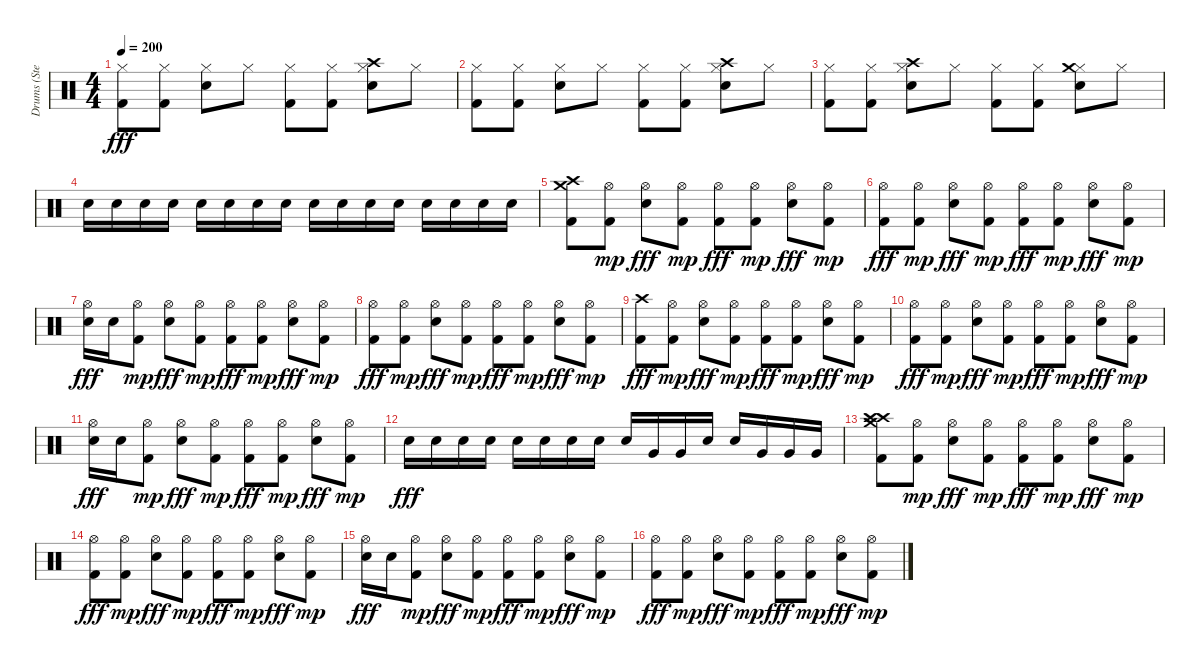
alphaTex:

\track ("Drums (Stevo32)" "Drums (Ste") {instrument percussion}
\staff {score}
\articulation defaults
\ts (4 4)
\tempo 200
\clef neutral
\ks c
("Kick (hit) 2" "Hi-Hat (closed)").8{dy fff} ("Kick (hit) 2" "Hi-Hat (closed)").8 ("Electric Snare (hit)" "Hi-Hat (closed)").8 "Hi-Hat (closed)".8 ("Kick (hit) 2" "Hi-Hat (closed)").8 ("Kick (hit) 2" "Hi-Hat (closed)").8 ("Electric Snare (hit)" "Hi-Hat (closed)" "Crash high (hit)").8 "Hi-Hat (closed)".8 |
("Kick (hit) 2" "Hi-Hat (closed)").8 ("Kick (hit) 2" "Hi-Hat (closed)").8 ("Electric Snare (hit)" "Hi-Hat (closed)").8 "Hi-Hat (closed)".8 ("Kick (hit) 2" "Hi-Hat (closed)").8 ("Kick (hit) 2" "Hi-Hat (closed)").8 ("Electric Snare (hit)" "Hi-Hat (closed)" "Crash high (hit)").8 "Hi-Hat (closed)".8 |
("Kick (hit) 2" "Hi-Hat (closed)").8 ("Kick (hit) 2" "Hi-Hat (closed)").8 ("Electric Snare (hit)" "Hi-Hat (closed)" "Crash high (hit)").8 "Hi-Hat (closed)".8 ("Kick (hit) 2" "Hi-Hat (closed)").8 ("Kick (hit) 2" "Hi-Hat (closed)").8 ("Electric Snare (hit)" "Hi-Hat (closed)" "Crash medium (hit)").8 "Hi-Hat (closed)".8 |
"Electric Snare (hit)".16 "Electric Snare (hit)".16 "Electric Snare (hit)".16 "Electric Snare (hit)".16 "Electric Snare (hit)".16 "Electric Snare (hit)".16 "Electric Snare (hit)".16 "Electric Snare (hit)".16 "Electric Snare (hit)".16 "Electric Snare (hit)".16 "Electric Snare (hit)".16 "Electric Snare (hit)".16 "Electric Snare (hit)".16 "Electric Snare (hit)".16 "Electric Snare (hit)".16 "Electric Snare (hit)".16 |
("Kick (hit) 2" "Crash high (hit)" "Crash medium (hit)").8 ("Kick (hit) 2" "Hi-Hat (open)").8{dy mp} ("Electric Snare (hit)" "Hi-Hat (open)").8{dy fff} ("Kick (hit) 2" "Hi-Hat (open)").8{dy mp} ("Kick (hit) 2" "Hi-Hat (open)").8{dy fff} ("Kick (hit) 2" "Hi-Hat (open)").8{dy mp} ("Electric Snare (hit)" "Hi-Hat (open)").8{dy fff} ("Kick (hit) 2" "Hi-Hat (open)").8{dy mp} |
("Kick (hit) 2" "Hi-Hat (open)").8{dy fff} ("Kick (hit) 2" "Hi-Hat (open)").8{dy mp} ("Electric Snare (hit)" "Hi-Hat (open)").8{dy fff} ("Kick (hit) 2" "Hi-Hat (open)").8{dy mp} ("Kick (hit) 2" "Hi-Hat (open)").8{dy fff} ("Kick (hit) 2" "Hi-Hat (open)").8{dy mp} ("Electric Snare (hit)" "Hi-Hat (open)").8{dy fff} ("Kick (hit) 2" "Hi-Hat (open)").8{dy mp} |
("Electric Snare (hit)" "Hi-Hat (open)").16{dy fff} "Electric Snare (hit)".16 ("Kick (hit) 2" "Hi-Hat (open)").8{dy mp} ("Electric Snare (hit)" "Hi-Hat (open)").8{dy fff} ("Kick (hit) 2" "Hi-Hat (open)").8{dy mp} ("Kick (hit) 2" "Hi-Hat (open)").8{dy fff} ("Kick (hit) 2" "Hi-Hat (open)").8{dy mp} ("Electric Snare (hit)" "Hi-Hat (open)").8{dy fff} ("Kick (hit) 2" "Hi-Hat (open)").8{dy mp} |
("Kick (hit) 2" "Hi-Hat (open)").8{dy fff} ("Kick (hit) 2" "Hi-Hat (open)").8{dy mp} ("Electric Snare (hit)" "Hi-Hat (open)").8{dy fff} ("Kick (hit) 2" "Hi-Hat (open)").8{dy mp} ("Kick (hit) 2" "Hi-Hat (open)").8{dy fff} ("Kick (hit) 2" "Hi-Hat (open)").8{dy mp} ("Electric Snare (hit)" "Hi-Hat (open)").8{dy fff} ("Kick (hit) 2" "Hi-Hat (open)").8{dy mp} |
("Kick (hit) 2" "Crash high (hit)").8{dy fff} ("Kick (hit) 2" "Hi-Hat (open)").8{dy mp} ("Electric Snare (hit)" "Hi-Hat (open)").8{dy fff} ("Kick (hit) 2" "Hi-Hat (open)").8{dy mp} ("Kick (hit) 2" "Hi-Hat (open)").8{dy fff} ("Kick (hit) 2" "Hi-Hat (open)").8{dy mp} ("Electric Snare (hit)" "Hi-Hat (open)").8{dy fff} ("Kick (hit) 2" "Hi-Hat (open)").8{dy mp} |
("Kick (hit) 2" "Hi-Hat (open)").8{dy fff} ("Kick (hit) 2" "Hi-Hat (open)").8{dy mp} ("Electric Snare (hit)" "Hi-Hat (open)").8{dy fff} ("Kick (hit) 2" "Hi-Hat (open)").8{dy mp} ("Kick (hit) 2" "Hi-Hat (open)").8{dy fff} ("Kick (hit) 2" "Hi-Hat (open)").8{dy mp} ("Electric Snare (hit)" "Hi-Hat (open)").8{dy fff} ("Kick (hit) 2" "Hi-Hat (open)").8{dy mp} |
("Electric Snare (hit)" "Hi-Hat (open)").16{dy fff} "Electric Snare (hit)".16 ("Kick (hit) 2" "Hi-Hat (open)").8{dy mp} ("Electric Snare (hit)" "Hi-Hat (open)").8{dy fff} ("Kick (hit) 2" "Hi-Hat (open)").8{dy mp} ("Kick (hit) 2" "Hi-Hat (open)").8{dy fff} ("Kick (hit) 2" "Hi-Hat (open)").8{dy mp} ("Electric Snare (hit)" "Hi-Hat (open)").8{dy fff} ("Kick (hit) 2" "Hi-Hat (open)").8{dy mp} |
"Electric Snare (hit)".16{dy fff} "Electric Snare (hit)".16 "Electric Snare (hit)".16 "Electric Snare (hit)".16 "Electric Snare (hit)".16 "Electric Snare (hit)".16 "Electric Snare (hit)".16 "Electric Snare (hit)".16 "Electric Snare (hit)".16 "Very Low Tom (hit)".16 "Very Low Tom (hit)".16 "Electric Snare (hit)".16 "Electric Snare (hit)".16 "Very Low Tom (hit)".16 "Very Low Tom (hit)".16 "Very Low Tom (hit)".16 |
("Kick (hit) 2" "Crash high (hit)" "Crash high (hit)" "Crash medium (hit)").8 ("Kick (hit) 2" "Hi-Hat (open)").8{dy mp} ("Electric Snare (hit)" "Hi-Hat (open)").8{dy fff} ("Kick (hit) 2" "Hi-Hat (open)").8{dy mp} ("Kick (hit) 2" "Hi-Hat (open)").8{dy fff} ("Kick (hit) 2" "Hi-Hat (open)").8{dy mp} ("Electric Snare (hit)" "Hi-Hat (open)").8{dy fff} ("Kick (hit) 2" "Hi-Hat (open)").8{dy mp} |
("Kick (hit) 2" "Hi-Hat (open)").8{dy fff} ("Kick (hit) 2" "Hi-Hat (open)").8{dy mp} ("Electric Snare (hit)" "Hi-Hat (open)").8{dy fff} ("Kick (hit) 2" "Hi-Hat (open)").8{dy mp} ("Kick (hit) 2" "Hi-Hat (open)").8{dy fff} ("Kick (hit) 2" "Hi-Hat (open)").8{dy mp} ("Electric Snare (hit)" "Hi-Hat (open)").8{dy fff} ("Kick (hit) 2" "Hi-Hat (open)").8{dy mp} |
("Electric Snare (hit)" "Hi-Hat (open)").16{dy fff} "Electric Snare (hit)".16 ("Kick (hit) 2" "Hi-Hat (open)").8{dy mp} ("Electric Snare (hit)" "Hi-Hat (open)").8{dy fff} ("Kick (hit) 2" "Hi-Hat (open)").8{dy mp} ("Kick (hit) 2" "Hi-Hat (open)").8{dy fff} ("Kick (hit) 2" "Hi-Hat (open)").8{dy mp} ("Electric Snare (hit)" "Hi-Hat (open)").8{dy fff} ("Kick (hit) 2" "Hi-Hat (open)").8{dy mp} |
("Kick (hit) 2" "Hi-Hat (open)").8{dy fff} ("Kick (hit) 2" "Hi-Hat (open)").8{dy mp} ("Electric Snare (hit)" "Hi-Hat (open)").8{dy fff} ("Kick (hit) 2" "Hi-Hat (open)").8{dy mp} ("Kick (hit) 2" "Hi-Hat (open)").8{dy fff} ("Kick (hit) 2" "Hi-Hat (open)").8{dy mp} ("Electric Snare (hit)" "Hi-Hat (open)").8{dy fff} ("Kick (hit) 2" "Hi-Hat (open)").8{dy mp}
